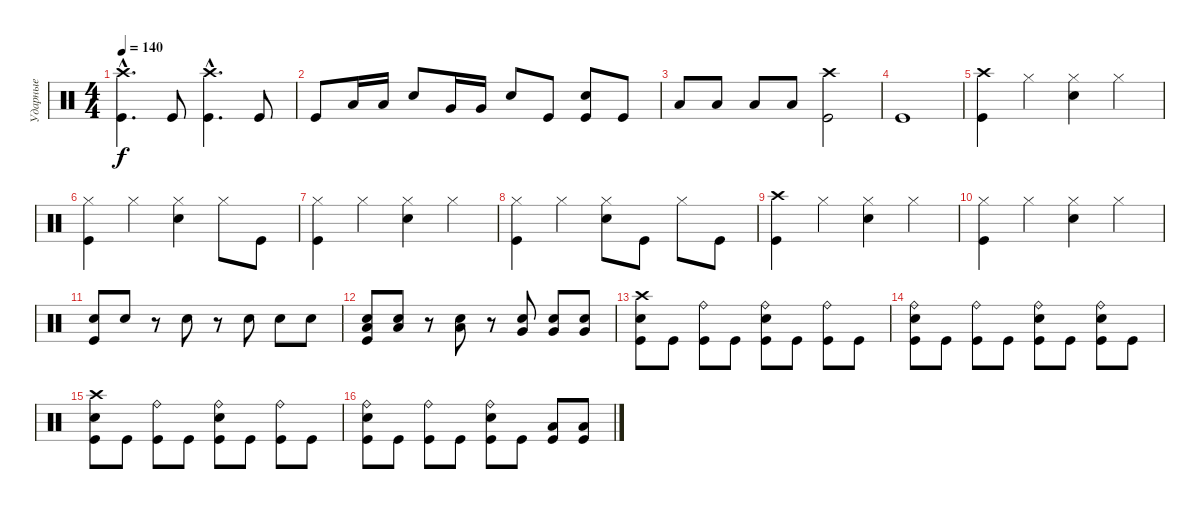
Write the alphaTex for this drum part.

\track ("Ударные" "Ударные") {instrument percussion}
\staff {score}
\articulation defaults
\ts (4 4)
\tempo 140
\clef neutral
\ks c
("Crash high (hit)"{hac} "Kick (hit)"{hac}).4{d dy f} "Kick (hit)".8 ("Crash high (hit)"{hac} "Kick (hit)"{hac}).4{d} "Kick (hit)".8 |
"Kick (hit)".8 "Low Tom (hit)".16 "Low Tom (hit)".16 "Electric Snare (hit)".8 "Very Low Tom (hit)".16 "Very Low Tom (hit)".16 "Electric Snare (hit)".8 "Kick (hit)".8 ("Electric Snare (hit)" "Kick (hit)").8 "Kick (hit)".8 |
"Low Tom (hit)".8 "Low Tom (hit)".8 "Low Tom (hit)".8 "Low Tom (hit)".8 ("Crash high (hit)" "Kick (hit)").2 |
"Kick (hit)".1 |
("Crash high (hit)" "Kick (hit)").4 "Hi-Hat (closed)".4 ("Hi-Hat (closed)" "Electric Snare (hit)").4 "Hi-Hat (closed)".4 |
("Hi-Hat (closed)" "Kick (hit)").4 "Hi-Hat (closed)".4 ("Hi-Hat (closed)" "Electric Snare (hit)").4 "Hi-Hat (closed)".8 "Kick (hit)".8 |
("Hi-Hat (closed)" "Kick (hit)").4 "Hi-Hat (closed)".4 ("Hi-Hat (closed)" "Electric Snare (hit)").4 "Hi-Hat (closed)".4 |
("Hi-Hat (closed)" "Kick (hit)").4 "Hi-Hat (closed)".4 ("Hi-Hat (closed)" "Electric Snare (hit)").8 "Kick (hit)".8 "Hi-Hat (closed)".8 "Kick (hit)".8 |
("Crash high (hit)" "Kick (hit)").4 "Hi-Hat (closed)".4 ("Hi-Hat (closed)" "Electric Snare (hit)").4 "Hi-Hat (closed)".4 |
("Hi-Hat (closed)" "Kick (hit)").4 "Hi-Hat (closed)".4 ("Hi-Hat (closed)" "Electric Snare (hit)").4 "Hi-Hat (closed)".4 |
("Electric Snare (hit)" "Kick (hit)").8 "Electric Snare (hit)".8 r.8 "Electric Snare (hit)".8 r.8 "Electric Snare (hit)".8 "Electric Snare (hit)".8 "Electric Snare (hit)".8 |
("Electric Snare (hit)" "Low Tom (hit)" "Kick (hit)").8 ("Electric Snare (hit)" "Low Tom (hit)").8 r.8 ("Electric Snare (hit)" "Low Tom (hit)").8 r.8 ("Electric Snare (hit)" "Very Low Tom (hit)").8 ("Electric Snare (hit)" "Very Low Tom (hit)").8 ("Electric Snare (hit)" "Very Low Tom (hit)").8 |
("Crash high (hit)" "Electric Snare (hit)" "Kick (hit)").8 "Kick (hit)".8 ("Ride (bell)" "Kick (hit)").8 "Kick (hit)".8 ("Ride (bell)" "Electric Snare (hit)" "Kick (hit)").8 "Kick (hit)".8 ("Ride (bell)" "Kick (hit)").8 "Kick (hit)".8 |
("Ride (bell)" "Electric Snare (hit)" "Kick (hit)").8 "Kick (hit)".8 ("Ride (bell)" "Kick (hit)").8 "Kick (hit)".8 ("Ride (bell)" "Electric Snare (hit)" "Kick (hit)").8 "Kick (hit)".8 ("Ride (bell)" "Electric Snare (hit)" "Kick (hit)").8 "Kick (hit)".8 |
("Crash high (hit)" "Electric Snare (hit)" "Kick (hit)").8 "Kick (hit)".8 ("Ride (bell)" "Kick (hit)").8 "Kick (hit)".8 ("Ride (bell)" "Electric Snare (hit)" "Kick (hit)").8 "Kick (hit)".8 ("Ride (bell)" "Kick (hit)").8 "Kick (hit)".8 |
("Ride (bell)" "Electric Snare (hit)" "Kick (hit)").8 "Kick (hit)".8 ("Ride (bell)" "Kick (hit)").8 "Kick (hit)".8 ("Ride (bell)" "Electric Snare (hit)" "Kick (hit)").8 "Kick (hit)".8 ("Low Tom (hit)" "Kick (hit)").8 ("Low Tom (hit)" "Kick (hit)").8
